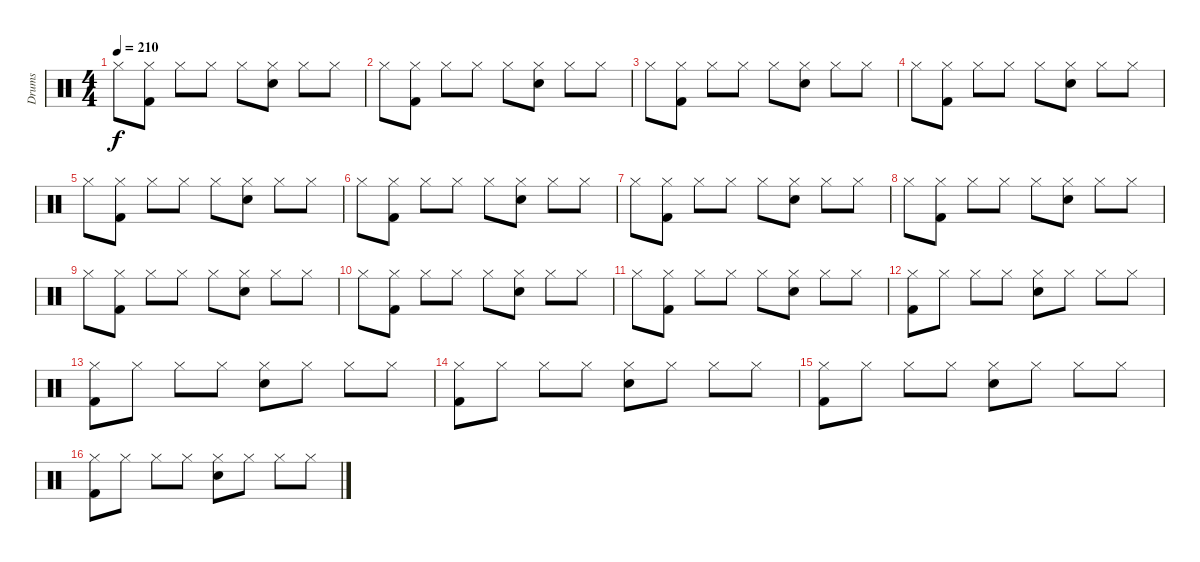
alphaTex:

\track ("Drums" "Drums") {instrument percussion}
\staff {score}
\articulation defaults
\ts (4 4)
\tempo 210
\clef neutral
\ks c "Hi-Hat (closed)".8{dy f}
("Hi-Hat (closed)" "Kick (hit) 2").8 "Hi-Hat (closed)".8 "Hi-Hat (closed)".8 "Hi-Hat (closed)".8 ("Hi-Hat (closed)" "Electric Snare (hit)").8 "Hi-Hat (closed)".8 "Hi-Hat (closed)".8 |
"Hi-Hat (closed)".8 ("Hi-Hat (closed)" "Kick (hit) 2").8 "Hi-Hat (closed)".8 "Hi-Hat (closed)".8 "Hi-Hat (closed)".8 ("Hi-Hat (closed)" "Electric Snare (hit)").8 "Hi-Hat (closed)".8 "Hi-Hat (closed)".8 |
"Hi-Hat (closed)".8 ("Hi-Hat (closed)" "Kick (hit) 2").8 "Hi-Hat (closed)".8 "Hi-Hat (closed)".8 "Hi-Hat (closed)".8 ("Hi-Hat (closed)" "Electric Snare (hit)").8 "Hi-Hat (closed)".8 "Hi-Hat (closed)".8 |
"Hi-Hat (closed)".8 ("Hi-Hat (closed)" "Kick (hit) 2").8 "Hi-Hat (closed)".8 "Hi-Hat (closed)".8 "Hi-Hat (closed)".8 ("Hi-Hat (closed)" "Electric Snare (hit)").8 "Hi-Hat (closed)".8 "Hi-Hat (closed)".8 |
"Hi-Hat (closed)".8 ("Hi-Hat (closed)" "Kick (hit) 2").8 "Hi-Hat (closed)".8 "Hi-Hat (closed)".8 "Hi-Hat (closed)".8 ("Hi-Hat (closed)" "Electric Snare (hit)").8 "Hi-Hat (closed)".8 "Hi-Hat (closed)".8 |
"Hi-Hat (closed)".8 ("Hi-Hat (closed)" "Kick (hit) 2").8 "Hi-Hat (closed)".8 "Hi-Hat (closed)".8 "Hi-Hat (closed)".8 ("Hi-Hat (closed)" "Electric Snare (hit)").8 "Hi-Hat (closed)".8 "Hi-Hat (closed)".8 |
"Hi-Hat (closed)".8 ("Hi-Hat (closed)" "Kick (hit) 2").8 "Hi-Hat (closed)".8 "Hi-Hat (closed)".8 "Hi-Hat (closed)".8 ("Hi-Hat (closed)" "Electric Snare (hit)").8 "Hi-Hat (closed)".8 "Hi-Hat (closed)".8 |
"Hi-Hat (closed)".8 ("Hi-Hat (closed)" "Kick (hit) 2").8 "Hi-Hat (closed)".8 "Hi-Hat (closed)".8 "Hi-Hat (closed)".8 ("Hi-Hat (closed)" "Electric Snare (hit)").8 "Hi-Hat (closed)".8 "Hi-Hat (closed)".8 |
"Hi-Hat (closed)".8 ("Hi-Hat (closed)" "Kick (hit) 2").8 "Hi-Hat (closed)".8 "Hi-Hat (closed)".8 "Hi-Hat (closed)".8 ("Hi-Hat (closed)" "Electric Snare (hit)").8 "Hi-Hat (closed)".8 "Hi-Hat (closed)".8 |
"Hi-Hat (closed)".8 ("Hi-Hat (closed)" "Kick (hit) 2").8 "Hi-Hat (closed)".8 "Hi-Hat (closed)".8 "Hi-Hat (closed)".8 ("Hi-Hat (closed)" "Electric Snare (hit)").8 "Hi-Hat (closed)".8 "Hi-Hat (closed)".8 |
"Hi-Hat (closed)".8 ("Hi-Hat (closed)" "Kick (hit) 2").8 "Hi-Hat (closed)".8 "Hi-Hat (closed)".8 "Hi-Hat (closed)".8 ("Hi-Hat (closed)" "Electric Snare (hit)").8 "Hi-Hat (closed)".8 "Hi-Hat (closed)".8 |
("Hi-Hat (closed)" "Kick (hit) 2").8 "Hi-Hat (closed)".8 "Hi-Hat (closed)".8 "Hi-Hat (closed)".8 ("Hi-Hat (closed)" "Electric Snare (hit)").8 "Hi-Hat (closed)".8 "Hi-Hat (closed)".8 "Hi-Hat (closed)".8 |
("Hi-Hat (closed)" "Kick (hit) 2").8 "Hi-Hat (closed)".8 "Hi-Hat (closed)".8 "Hi-Hat (closed)".8 ("Hi-Hat (closed)" "Electric Snare (hit)").8 "Hi-Hat (closed)".8 "Hi-Hat (closed)".8 "Hi-Hat (closed)".8 |
("Hi-Hat (closed)" "Kick (hit) 2").8 "Hi-Hat (closed)".8 "Hi-Hat (closed)".8 "Hi-Hat (closed)".8 ("Hi-Hat (closed)" "Electric Snare (hit)").8 "Hi-Hat (closed)".8 "Hi-Hat (closed)".8 "Hi-Hat (closed)".8 |
("Hi-Hat (closed)" "Kick (hit) 2").8 "Hi-Hat (closed)".8 "Hi-Hat (closed)".8 "Hi-Hat (closed)".8 ("Hi-Hat (closed)" "Electric Snare (hit)").8 "Hi-Hat (closed)".8 "Hi-Hat (closed)".8 "Hi-Hat (closed)".8 |
("Hi-Hat (closed)" "Kick (hit) 2").8 "Hi-Hat (closed)".8 "Hi-Hat (closed)".8 "Hi-Hat (closed)".8 ("Hi-Hat (closed)" "Electric Snare (hit)").8 "Hi-Hat (closed)".8 "Hi-Hat (closed)".8 "Hi-Hat (closed)".8
